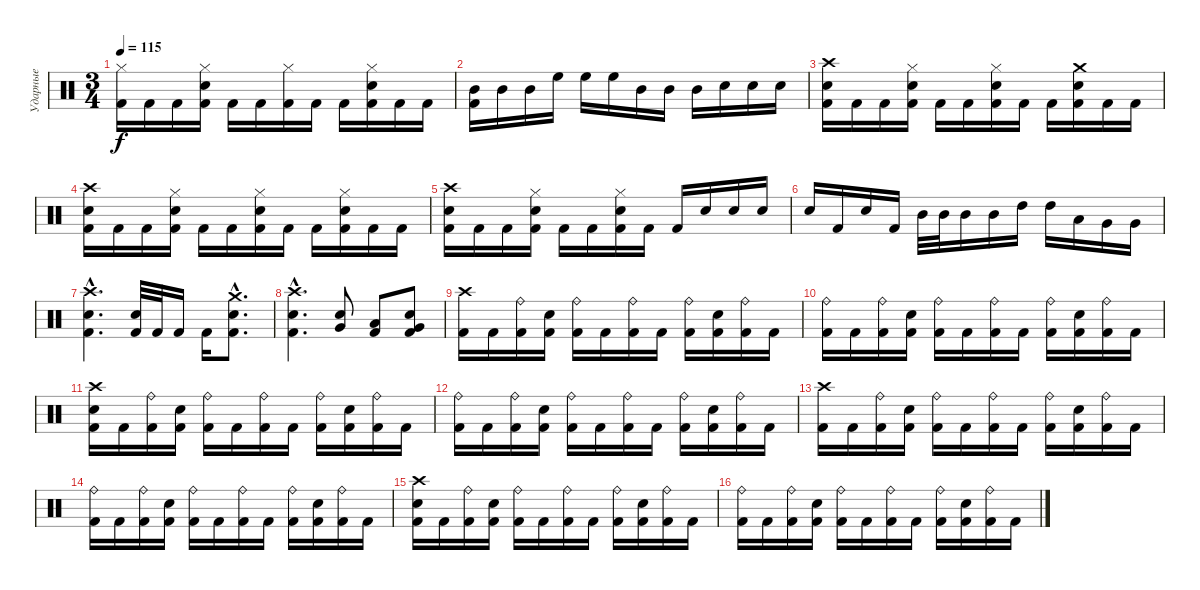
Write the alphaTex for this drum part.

\track ("Ударные" "Ударные") {instrument percussion}
\staff {score}
\articulation defaults
\ts (3 4)
\tempo 115
\clef neutral
\ks c
("Hi-Hat (closed)" "Kick (hit) 2").16{dy f} "Kick (hit) 2".16 "Kick (hit) 2".16 ("Hi-Hat (closed)" "Electric Snare (hit)" "Kick (hit) 2").16 "Kick (hit) 2".16 "Kick (hit) 2".16 ("Hi-Hat (closed)" "Kick (hit) 2").16 "Kick (hit) 2".16 "Kick (hit) 2".16 ("Hi-Hat (closed)" "Electric Snare (hit)" "Kick (hit) 2").16 "Kick (hit) 2".16 "Kick (hit) 2".16 |
("Mid Tom (hit)" "Kick (hit) 2").16 "Mid Tom (hit)".16 "Mid Tom (hit)".16 "High Floor Tom (hit)".16 "High Floor Tom (hit)".16 "High Floor Tom (hit)".16 "Mid Tom (hit)".16 "Mid Tom (hit)".16 "Mid Tom (hit)".16 "Electric Snare (hit)".16 "Electric Snare (hit)".16 "Electric Snare (hit)".16 |
("Crash high (hit)" "Electric Snare (hit)" "Kick (hit) 2").16 "Kick (hit) 2".16 "Kick (hit) 2".16 ("Hi-Hat (closed)" "Electric Snare (hit)" "Kick (hit) 2").16 "Kick (hit) 2".16 "Kick (hit) 2".16 ("Hi-Hat (closed)" "Electric Snare (hit)" "Kick (hit) 2").16 "Kick (hit) 2".16 "Kick (hit) 2".16 ("Crash medium (hit)" "Electric Snare (hit)" "Kick (hit) 2").16 "Kick (hit) 2".16 "Kick (hit) 2".16 |
("Crash high (hit)" "Electric Snare (hit)" "Kick (hit) 2").16 "Kick (hit) 2".16 "Kick (hit) 2".16 ("Hi-Hat (closed)" "Electric Snare (hit)" "Kick (hit) 2").16 "Kick (hit) 2".16 "Kick (hit) 2".16 ("Hi-Hat (closed)" "Electric Snare (hit)" "Kick (hit) 2").16 "Kick (hit) 2".16 "Kick (hit) 2".16 ("Hi-Hat (closed)" "Electric Snare (hit)" "Kick (hit) 2").16 "Kick (hit) 2".16 "Kick (hit) 2".16 |
("Crash high (hit)" "Electric Snare (hit)" "Kick (hit) 2").16 "Kick (hit) 2".16 "Kick (hit) 2".16 ("Hi-Hat (closed)" "Electric Snare (hit)" "Kick (hit) 2").16 "Kick (hit) 2".16 "Kick (hit) 2".16 ("Hi-Hat (closed)" "Electric Snare (hit)" "Kick (hit) 2").16 "Kick (hit) 2".16 "Kick (hit) 2".16 "Electric Snare (hit)".16 "Electric Snare (hit)".16 "Electric Snare (hit)".16 |
"Electric Snare (hit)".16 "Kick (hit) 2".16 "Electric Snare (hit)".16 "Kick (hit) 2".16 "Mid Tom (hit)".32 "Mid Tom (hit)".32 "Mid Tom (hit)".16 "Mid Tom (hit)".16 "High Tom (hit)".16 "High Tom (hit)".16 "Low Tom (hit)".16 "Very Low Tom (hit)".16 "Very Low Tom (hit)".16 |
("Crash high (hit)"{hac} "Electric Snare (hit)"{hac} "Kick (hit) 2"{hac}).4{d} ("Electric Snare (hit)" "Kick (hit) 2").32 "Kick (hit) 2".32 "Kick (hit) 2".16 "Kick (hit) 2".16 ("Crash medium (hit)"{hac} "Electric Snare (hit)"{hac} "Kick (hit) 2"{hac}).8{d} |
("Crash high (hit)"{hac} "Electric Snare (hit)"{hac} "Kick (hit) 2"{hac}).4{d} ("Very Low Tom (hit)" "Electric Snare (hit)").8 ("Low Tom (hit)" "Kick (hit) 2").8 ("Very Low Tom (hit)" "Electric Snare (hit)" "Kick (hit) 2").8 |
("Crash high (hit)" "Kick (hit) 2").16 "Kick (hit) 2".16 ("Ride (bell)" "Kick (hit) 2").16 ("Electric Snare (hit)" "Kick (hit) 2").16 ("Ride (bell)" "Kick (hit) 2").16 "Kick (hit) 2".16 ("Ride (bell)" "Kick (hit) 2").16 "Kick (hit) 2".16 ("Ride (bell)" "Kick (hit) 2").16 ("Electric Snare (hit)" "Kick (hit) 2").16 ("Ride (bell)" "Kick (hit) 2").16 "Kick (hit) 2".16 |
("Ride (bell)" "Kick (hit) 2").16 "Kick (hit) 2".16 ("Ride (bell)" "Kick (hit) 2").16 ("Electric Snare (hit)" "Kick (hit) 2").16 ("Ride (bell)" "Kick (hit) 2").16 "Kick (hit) 2".16 ("Ride (bell)" "Kick (hit) 2").16 "Kick (hit) 2".16 ("Ride (bell)" "Kick (hit) 2").16 ("Electric Snare (hit)" "Kick (hit) 2").16 ("Ride (bell)" "Kick (hit) 2").16 "Kick (hit) 2".16 |
("Crash high (hit)" "Electric Snare (hit)" "Kick (hit) 2").16 "Kick (hit) 2".16 ("Ride (bell)" "Kick (hit) 2").16 ("Electric Snare (hit)" "Kick (hit) 2").16 ("Ride (bell)" "Kick (hit) 2").16 "Kick (hit) 2".16 ("Ride (bell)" "Kick (hit) 2").16 "Kick (hit) 2".16 ("Ride (bell)" "Kick (hit) 2").16 ("Electric Snare (hit)" "Kick (hit) 2").16 ("Ride (bell)" "Kick (hit) 2").16 "Kick (hit) 2".16 |
("Ride (bell)" "Kick (hit) 2").16 "Kick (hit) 2".16 ("Ride (bell)" "Kick (hit) 2").16 ("Electric Snare (hit)" "Kick (hit) 2").16 ("Ride (bell)" "Kick (hit) 2").16 "Kick (hit) 2".16 ("Ride (bell)" "Kick (hit) 2").16 "Kick (hit) 2".16 ("Ride (bell)" "Kick (hit) 2").16 ("Electric Snare (hit)" "Kick (hit) 2").16 ("Ride (bell)" "Kick (hit) 2").16 "Kick (hit) 2".16 |
("Crash high (hit)" "Kick (hit) 2").16 "Kick (hit) 2".16 ("Ride (bell)" "Kick (hit) 2").16 ("Electric Snare (hit)" "Kick (hit) 2").16 ("Ride (bell)" "Kick (hit) 2").16 "Kick (hit) 2".16 ("Ride (bell)" "Kick (hit) 2").16 "Kick (hit) 2".16 ("Ride (bell)" "Kick (hit) 2").16 ("Electric Snare (hit)" "Kick (hit) 2").16 ("Ride (bell)" "Kick (hit) 2").16 "Kick (hit) 2".16 |
("Ride (bell)" "Kick (hit) 2").16 "Kick (hit) 2".16 ("Ride (bell)" "Kick (hit) 2").16 ("Electric Snare (hit)" "Kick (hit) 2").16 ("Ride (bell)" "Kick (hit) 2").16 "Kick (hit) 2".16 ("Ride (bell)" "Kick (hit) 2").16 "Kick (hit) 2".16 ("Ride (bell)" "Kick (hit) 2").16 ("Electric Snare (hit)" "Kick (hit) 2").16 ("Ride (bell)" "Kick (hit) 2").16 "Kick (hit) 2".16 |
("Crash high (hit)" "Electric Snare (hit)" "Kick (hit) 2").16 "Kick (hit) 2".16 ("Ride (bell)" "Kick (hit) 2").16 ("Electric Snare (hit)" "Kick (hit) 2").16 ("Ride (bell)" "Kick (hit) 2").16 "Kick (hit) 2".16 ("Ride (bell)" "Kick (hit) 2").16 "Kick (hit) 2".16 ("Ride (bell)" "Kick (hit) 2").16 ("Electric Snare (hit)" "Kick (hit) 2").16 ("Ride (bell)" "Kick (hit) 2").16 "Kick (hit) 2".16 |
("Ride (bell)" "Kick (hit) 2").16 "Kick (hit) 2".16 ("Ride (bell)" "Kick (hit) 2").16 ("Electric Snare (hit)" "Kick (hit) 2").16 ("Ride (bell)" "Kick (hit) 2").16 "Kick (hit) 2".16 ("Ride (bell)" "Kick (hit) 2").16 "Kick (hit) 2".16 ("Ride (bell)" "Kick (hit) 2").16 ("Electric Snare (hit)" "Kick (hit) 2").16 ("Ride (bell)" "Kick (hit) 2").16 "Kick (hit) 2".16
